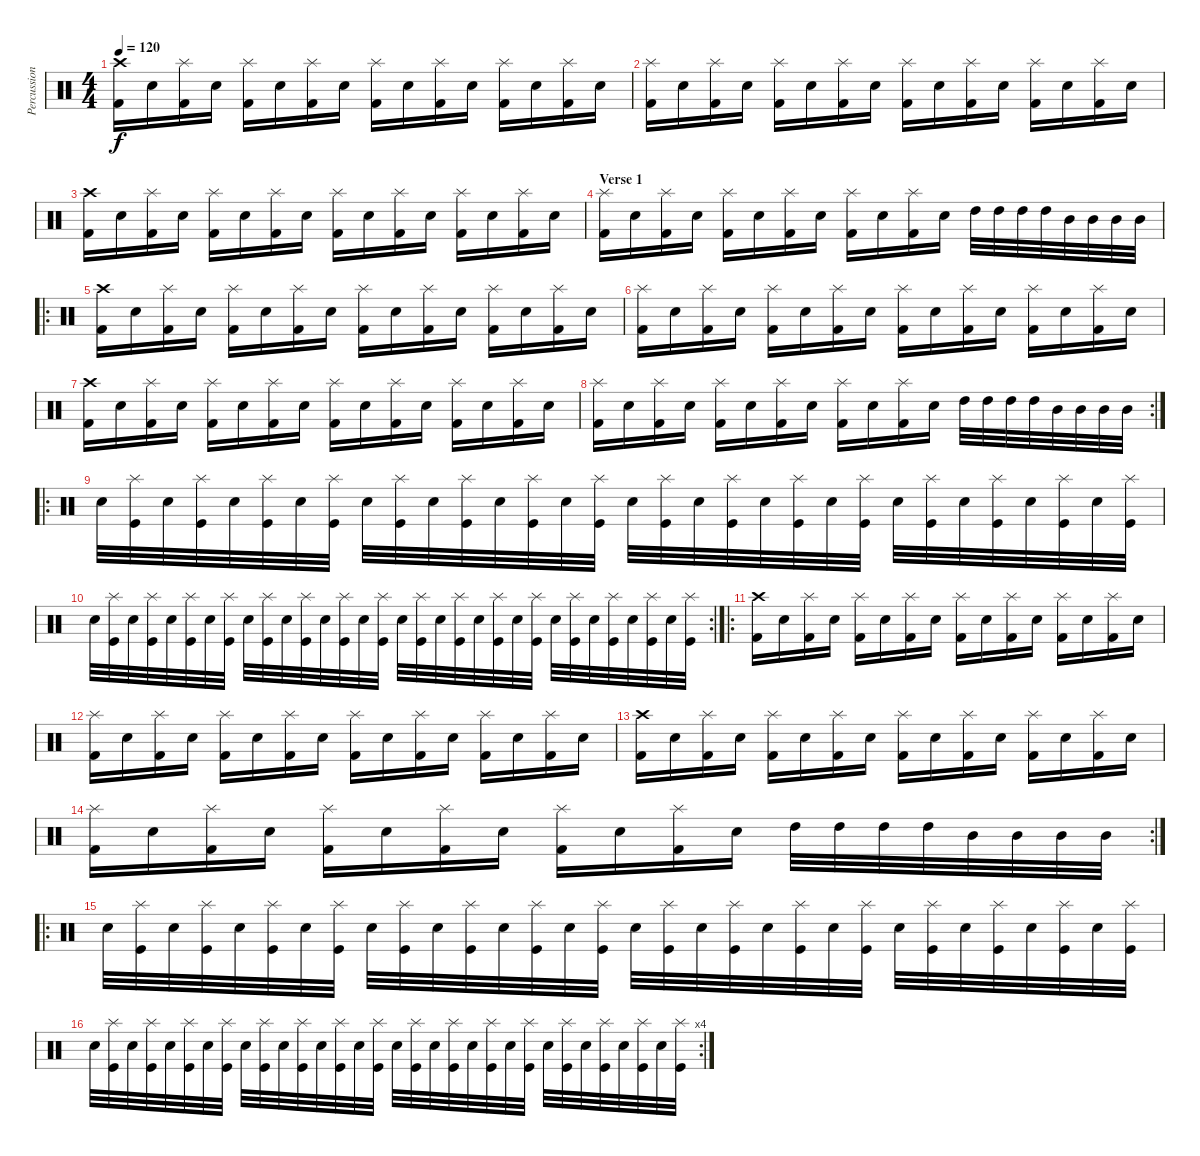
\track ("Percussion" "Percussion") {instrument percussion}
\staff {score}
\articulation defaults
\ts (4 4)
\tempo 120
\clef neutral
\ks c
("Crash high (hit)" "Kick (hit) 2").16{dy f} "Electric Snare (hit)".16 ("Splash (hit)" "Kick (hit) 2").16 "Electric Snare (hit)".16 ("Splash (hit)" "Kick (hit) 2").16 "Electric Snare (hit)".16 ("Splash (hit)" "Kick (hit) 2").16 "Electric Snare (hit)".16 ("Splash (hit)" "Kick (hit) 2").16 "Electric Snare (hit)".16 ("Splash (hit)" "Kick (hit) 2").16 "Electric Snare (hit)".16 ("Splash (hit)" "Kick (hit) 2").16 "Electric Snare (hit)".16 ("Splash (hit)" "Kick (hit) 2").16 "Electric Snare (hit)".16 |
("Splash (hit)" "Kick (hit) 2").16 "Electric Snare (hit)".16 ("Splash (hit)" "Kick (hit) 2").16 "Electric Snare (hit)".16 ("Splash (hit)" "Kick (hit) 2").16 "Electric Snare (hit)".16 ("Splash (hit)" "Kick (hit) 2").16 "Electric Snare (hit)".16 ("Splash (hit)" "Kick (hit) 2").16 "Electric Snare (hit)".16 ("Splash (hit)" "Kick (hit) 2").16 "Electric Snare (hit)".16 ("Splash (hit)" "Kick (hit) 2").16 "Electric Snare (hit)".16 ("Splash (hit)" "Kick (hit) 2").16 "Electric Snare (hit)".16 |
("Crash high (hit)" "Kick (hit) 2").16 "Electric Snare (hit)".16 ("Splash (hit)" "Kick (hit) 2").16 "Electric Snare (hit)".16 ("Splash (hit)" "Kick (hit) 2").16 "Electric Snare (hit)".16 ("Splash (hit)" "Kick (hit) 2").16 "Electric Snare (hit)".16 ("Splash (hit)" "Kick (hit) 2").16 "Electric Snare (hit)".16 ("Splash (hit)" "Kick (hit) 2").16 "Electric Snare (hit)".16 ("Splash (hit)" "Kick (hit) 2").16 "Electric Snare (hit)".16 ("Splash (hit)" "Kick (hit) 2").16 "Electric Snare (hit)".16 |
\section ("" "Verse 1")
("Splash (hit)" "Kick (hit) 2").16 "Electric Snare (hit)".16 ("Splash (hit)" "Kick (hit) 2").16 "Electric Snare (hit)".16 ("Splash (hit)" "Kick (hit) 2").16 "Electric Snare (hit)".16 ("Splash (hit)" "Kick (hit) 2").16 "Electric Snare (hit)".16 ("Splash (hit)" "Kick (hit) 2").16 "Electric Snare (hit)".16 ("Splash (hit)" "Kick (hit) 2").16 "Electric Snare (hit)".16 "High Tom (hit)".32 "High Tom (hit)".32 "High Tom (hit)".32 "High Tom (hit)".32 "Mid Tom (hit)".32 "Mid Tom (hit)".32 "Mid Tom (hit)".32 "Mid Tom (hit)".32 |
\ro
("Crash high (hit)" "Kick (hit) 2").16 "Electric Snare (hit)".16 ("Splash (hit)" "Kick (hit) 2").16 "Electric Snare (hit)".16 ("Splash (hit)" "Kick (hit) 2").16 "Electric Snare (hit)".16 ("Splash (hit)" "Kick (hit) 2").16 "Electric Snare (hit)".16 ("Splash (hit)" "Kick (hit) 2").16 "Electric Snare (hit)".16 ("Splash (hit)" "Kick (hit) 2").16 "Electric Snare (hit)".16 ("Splash (hit)" "Kick (hit) 2").16 "Electric Snare (hit)".16 ("Splash (hit)" "Kick (hit) 2").16 "Electric Snare (hit)".16 |
("Splash (hit)" "Kick (hit) 2").16 "Electric Snare (hit)".16 ("Splash (hit)" "Kick (hit) 2").16 "Electric Snare (hit)".16 ("Splash (hit)" "Kick (hit) 2").16 "Electric Snare (hit)".16 ("Splash (hit)" "Kick (hit) 2").16 "Electric Snare (hit)".16 ("Splash (hit)" "Kick (hit) 2").16 "Electric Snare (hit)".16 ("Splash (hit)" "Kick (hit) 2").16 "Electric Snare (hit)".16 ("Splash (hit)" "Kick (hit) 2").16 "Electric Snare (hit)".16 ("Splash (hit)" "Kick (hit) 2").16 "Electric Snare (hit)".16 |
("Crash high (hit)" "Kick (hit) 2").16 "Electric Snare (hit)".16 ("Splash (hit)" "Kick (hit) 2").16 "Electric Snare (hit)".16 ("Splash (hit)" "Kick (hit) 2").16 "Electric Snare (hit)".16 ("Splash (hit)" "Kick (hit) 2").16 "Electric Snare (hit)".16 ("Splash (hit)" "Kick (hit) 2").16 "Electric Snare (hit)".16 ("Splash (hit)" "Kick (hit) 2").16 "Electric Snare (hit)".16 ("Splash (hit)" "Kick (hit) 2").16 "Electric Snare (hit)".16 ("Splash (hit)" "Kick (hit) 2").16 "Electric Snare (hit)".16 |
\rc 2
("Splash (hit)" "Kick (hit) 2").16 "Electric Snare (hit)".16 ("Splash (hit)" "Kick (hit) 2").16 "Electric Snare (hit)".16 ("Splash (hit)" "Kick (hit) 2").16 "Electric Snare (hit)".16 ("Splash (hit)" "Kick (hit) 2").16 "Electric Snare (hit)".16 ("Splash (hit)" "Kick (hit) 2").16 "Electric Snare (hit)".16 ("Splash (hit)" "Kick (hit) 2").16 "Electric Snare (hit)".16 "High Tom (hit)".32 "High Tom (hit)".32 "High Tom (hit)".32 "High Tom (hit)".32 "Mid Tom (hit)".32 "Mid Tom (hit)".32 "Mid Tom (hit)".32 "Mid Tom (hit)".32 |
\ro "Electric Snare (hit)".32
("Splash (hit)" "Kick (hit)").32 "Electric Snare (hit)".32 ("Splash (hit)" "Kick (hit)").32 "Electric Snare (hit)".32 ("Splash (hit)" "Kick (hit)").32 "Electric Snare (hit)".32 ("Splash (hit)" "Kick (hit)").32 "Electric Snare (hit)".32 ("Splash (hit)" "Kick (hit)").32 "Electric Snare (hit)".32 ("Splash (hit)" "Kick (hit)").32 "Electric Snare (hit)".32 ("Splash (hit)" "Kick (hit)").32 "Electric Snare (hit)".32 ("Splash (hit)" "Kick (hit)").32 "Electric Snare (hit)".32 ("Splash (hit)" "Kick (hit)").32 "Electric Snare (hit)".32 ("Splash (hit)" "Kick (hit)").32 "Electric Snare (hit)".32 ("Splash (hit)" "Kick (hit)").32 "Electric Snare (hit)".32 ("Splash (hit)" "Kick (hit)").32 "Electric Snare (hit)".32 ("Splash (hit)" "Kick (hit)").32 "Electric Snare (hit)".32 ("Splash (hit)" "Kick (hit)").32 "Electric Snare (hit)".32 ("Splash (hit)" "Kick (hit)").32 "Electric Snare (hit)".32 ("Splash (hit)" "Kick (hit)").32 |
\rc 2 "Electric Snare (hit)".32
("Splash (hit)" "Kick (hit)").32 "Electric Snare (hit)".32 ("Splash (hit)" "Kick (hit)").32 "Electric Snare (hit)".32 ("Splash (hit)" "Kick (hit)").32 "Electric Snare (hit)".32 ("Splash (hit)" "Kick (hit)").32 "Electric Snare (hit)".32 ("Splash (hit)" "Kick (hit)").32 "Electric Snare (hit)".32 ("Splash (hit)" "Kick (hit)").32 "Electric Snare (hit)".32 ("Splash (hit)" "Kick (hit)").32 "Electric Snare (hit)".32 ("Splash (hit)" "Kick (hit)").32 "Electric Snare (hit)".32 ("Splash (hit)" "Kick (hit)").32 "Electric Snare (hit)".32 ("Splash (hit)" "Kick (hit)").32 "Electric Snare (hit)".32 ("Splash (hit)" "Kick (hit)").32 "Electric Snare (hit)".32 ("Splash (hit)" "Kick (hit)").32 "Electric Snare (hit)".32 ("Splash (hit)" "Kick (hit)").32 "Electric Snare (hit)".32 ("Splash (hit)" "Kick (hit)").32 "Electric Snare (hit)".32 ("Splash (hit)" "Kick (hit)").32 "Electric Snare (hit)".32 ("Splash (hit)" "Kick (hit)").32 |
\ro
("Crash high (hit)" "Kick (hit) 2").16 "Electric Snare (hit)".16 ("Splash (hit)" "Kick (hit) 2").16 "Electric Snare (hit)".16 ("Splash (hit)" "Kick (hit) 2").16 "Electric Snare (hit)".16 ("Splash (hit)" "Kick (hit) 2").16 "Electric Snare (hit)".16 ("Splash (hit)" "Kick (hit) 2").16 "Electric Snare (hit)".16 ("Splash (hit)" "Kick (hit) 2").16 "Electric Snare (hit)".16 ("Splash (hit)" "Kick (hit) 2").16 "Electric Snare (hit)".16 ("Splash (hit)" "Kick (hit) 2").16 "Electric Snare (hit)".16 |
("Splash (hit)" "Kick (hit) 2").16 "Electric Snare (hit)".16 ("Splash (hit)" "Kick (hit) 2").16 "Electric Snare (hit)".16 ("Splash (hit)" "Kick (hit) 2").16 "Electric Snare (hit)".16 ("Splash (hit)" "Kick (hit) 2").16 "Electric Snare (hit)".16 ("Splash (hit)" "Kick (hit) 2").16 "Electric Snare (hit)".16 ("Splash (hit)" "Kick (hit) 2").16 "Electric Snare (hit)".16 ("Splash (hit)" "Kick (hit) 2").16 "Electric Snare (hit)".16 ("Splash (hit)" "Kick (hit) 2").16 "Electric Snare (hit)".16 |
("Crash high (hit)" "Kick (hit) 2").16 "Electric Snare (hit)".16 ("Splash (hit)" "Kick (hit) 2").16 "Electric Snare (hit)".16 ("Splash (hit)" "Kick (hit) 2").16 "Electric Snare (hit)".16 ("Splash (hit)" "Kick (hit) 2").16 "Electric Snare (hit)".16 ("Splash (hit)" "Kick (hit) 2").16 "Electric Snare (hit)".16 ("Splash (hit)" "Kick (hit) 2").16 "Electric Snare (hit)".16 ("Splash (hit)" "Kick (hit) 2").16 "Electric Snare (hit)".16 ("Splash (hit)" "Kick (hit) 2").16 "Electric Snare (hit)".16 |
\rc 2
("Splash (hit)" "Kick (hit) 2").16 "Electric Snare (hit)".16 ("Splash (hit)" "Kick (hit) 2").16 "Electric Snare (hit)".16 ("Splash (hit)" "Kick (hit) 2").16 "Electric Snare (hit)".16 ("Splash (hit)" "Kick (hit) 2").16 "Electric Snare (hit)".16 ("Splash (hit)" "Kick (hit) 2").16 "Electric Snare (hit)".16 ("Splash (hit)" "Kick (hit) 2").16 "Electric Snare (hit)".16 "High Tom (hit)".32 "High Tom (hit)".32 "High Tom (hit)".32 "High Tom (hit)".32 "Mid Tom (hit)".32 "Mid Tom (hit)".32 "Mid Tom (hit)".32 "Mid Tom (hit)".32 |
\ro "Electric Snare (hit)".32
("Splash (hit)" "Kick (hit)").32 "Electric Snare (hit)".32 ("Splash (hit)" "Kick (hit)").32 "Electric Snare (hit)".32 ("Splash (hit)" "Kick (hit)").32 "Electric Snare (hit)".32 ("Splash (hit)" "Kick (hit)").32 "Electric Snare (hit)".32 ("Splash (hit)" "Kick (hit)").32 "Electric Snare (hit)".32 ("Splash (hit)" "Kick (hit)").32 "Electric Snare (hit)".32 ("Splash (hit)" "Kick (hit)").32 "Electric Snare (hit)".32 ("Splash (hit)" "Kick (hit)").32 "Electric Snare (hit)".32 ("Splash (hit)" "Kick (hit)").32 "Electric Snare (hit)".32 ("Splash (hit)" "Kick (hit)").32 "Electric Snare (hit)".32 ("Splash (hit)" "Kick (hit)").32 "Electric Snare (hit)".32 ("Splash (hit)" "Kick (hit)").32 "Electric Snare (hit)".32 ("Splash (hit)" "Kick (hit)").32 "Electric Snare (hit)".32 ("Splash (hit)" "Kick (hit)").32 "Electric Snare (hit)".32 ("Splash (hit)" "Kick (hit)").32 "Electric Snare (hit)".32 ("Splash (hit)" "Kick (hit)").32 |
\rc 4 "Electric Snare (hit)".32
("Splash (hit)" "Kick (hit)").32 "Electric Snare (hit)".32 ("Splash (hit)" "Kick (hit)").32 "Electric Snare (hit)".32 ("Splash (hit)" "Kick (hit)").32 "Electric Snare (hit)".32 ("Splash (hit)" "Kick (hit)").32 "Electric Snare (hit)".32 ("Splash (hit)" "Kick (hit)").32 "Electric Snare (hit)".32 ("Splash (hit)" "Kick (hit)").32 "Electric Snare (hit)".32 ("Splash (hit)" "Kick (hit)").32 "Electric Snare (hit)".32 ("Splash (hit)" "Kick (hit)").32 "Electric Snare (hit)".32 ("Splash (hit)" "Kick (hit)").32 "Electric Snare (hit)".32 ("Splash (hit)" "Kick (hit)").32 "Electric Snare (hit)".32 ("Splash (hit)" "Kick (hit)").32 "Electric Snare (hit)".32 ("Splash (hit)" "Kick (hit)").32 "Electric Snare (hit)".32 ("Splash (hit)" "Kick (hit)").32 "Electric Snare (hit)".32 ("Splash (hit)" "Kick (hit)").32 "Electric Snare (hit)".32 ("Splash (hit)" "Kick (hit)").32 "Electric Snare (hit)".32 ("Splash (hit)" "Kick (hit)").32
